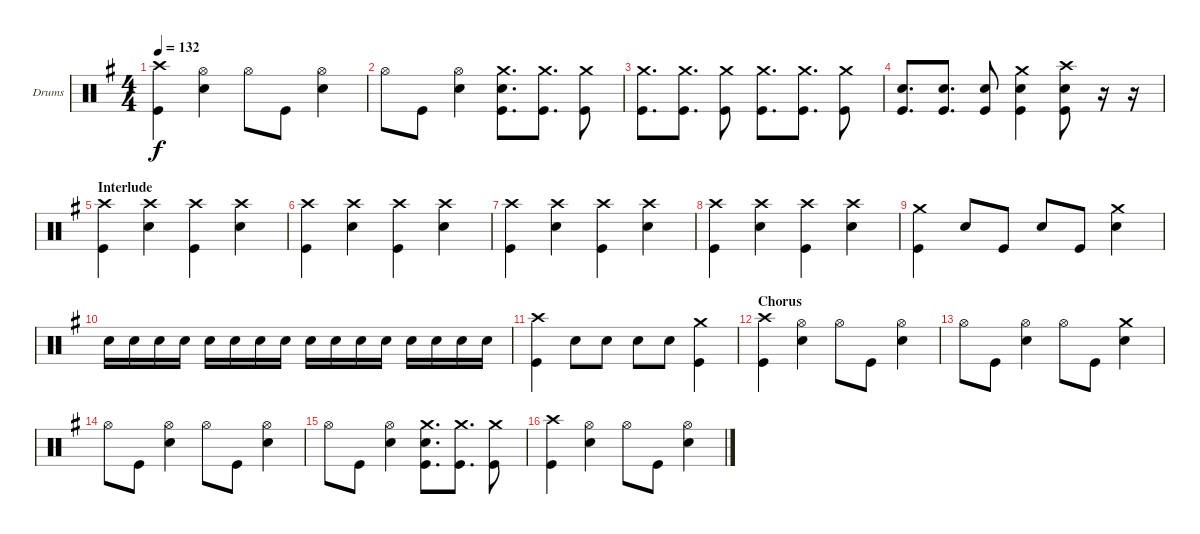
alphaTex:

\bracketExtendMode groupsimilarinstruments
\firstSystemTrackNameOrientation horizontal
\otherSystemsTrackNameOrientation horizontal
\track ("Drumkit" "Drums") {instrument percussion}
\staff {score}
\articulation defaults
\ts (4 4)
\tempo 132
\clef neutral
\ks g
("Crash high (hit)" "Kick (hit)").4{dy f} ("Hi-Hat (open)" "Snare (hit) 2").4 "Hi-Hat (open)".8 "Kick (hit)".8 ("Hi-Hat (open)" "Snare (hit) 2").4 |
"Hi-Hat (open)".8 "Kick (hit)".8 ("Hi-Hat (open)" "Snare (hit) 2").4 ("Crash medium (hit)" "Snare (hit) 2" "Kick (hit)").8{d} ("Crash medium (hit)" "Kick (hit)").8{d} ("Crash medium (hit)" "Kick (hit)").8 |
("Crash medium (hit)" "Kick (hit)").8{d} ("Crash medium (hit)" "Kick (hit)").8{d} ("Crash medium (hit)" "Kick (hit)").8 ("Crash medium (hit)" "Kick (hit)").8{d} ("Crash medium (hit)" "Kick (hit)").8{d} ("Crash medium (hit)" "Kick (hit)").8 |
("Snare (hit) 2" "Kick (hit)").8{d} ("Snare (hit) 2" "Kick (hit)").8{d} ("Snare (hit) 2" "Kick (hit)").8 ("Crash medium (hit)" "Snare (hit) 2" "Kick (hit)").4 ("Crash high (hit)" "Snare (hit) 2" "Kick (hit)").8 r.16 r.16 |
\section ("" "Interlude")
("Crash high (hit)" "Kick (hit)").4 ("Crash high (hit)" "Snare (hit) 2").4 ("Crash high (hit)" "Kick (hit)").4 ("Crash high (hit)" "Snare (hit) 2").4 |
("Crash high (hit)" "Kick (hit)").4 ("Crash high (hit)" "Snare (hit) 2").4 ("Crash high (hit)" "Kick (hit)").4 ("Crash high (hit)" "Snare (hit) 2").4 |
("Crash high (hit)" "Kick (hit)").4 ("Crash high (hit)" "Snare (hit) 2").4 ("Crash high (hit)" "Kick (hit)").4 ("Crash high (hit)" "Snare (hit) 2").4 |
("Crash high (hit)" "Kick (hit)").4 ("Crash high (hit)" "Snare (hit) 2").4 ("Crash high (hit)" "Kick (hit)").4 ("Crash high (hit)" "Snare (hit) 2").4 |
("Crash medium (hit)" "Kick (hit)").4 "Snare (hit) 2".8 "Kick (hit)".8 "Snare (hit) 2".8 "Kick (hit)".8 ("Crash medium (hit)" "Snare (hit) 2").4 |
"Snare (hit) 2".16 "Snare (hit) 2".16 "Snare (hit) 2".16 "Snare (hit) 2".16 "Snare (hit) 2".16 "Snare (hit) 2".16 "Snare (hit) 2".16 "Snare (hit) 2".16 "Snare (hit) 2".16 "Snare (hit) 2".16 "Snare (hit) 2".16 "Snare (hit) 2".16 "Snare (hit) 2".16 "Snare (hit) 2".16 "Snare (hit) 2".16 "Snare (hit) 2".16 |
("Crash high (hit)" "Kick (hit)").4 "Snare (hit) 2".8 "Snare (hit) 2".8 "Snare (hit) 2".8 "Snare (hit) 2".8 ("Crash medium (hit)" "Kick (hit)").4 |
\section ("" "Chorus")
("Crash high (hit)" "Kick (hit)").4 ("Hi-Hat (open)" "Snare (hit) 2").4 "Hi-Hat (open)".8 "Kick (hit)".8 ("Hi-Hat (open)" "Snare (hit) 2").4 |
"Hi-Hat (open)".8 "Kick (hit)".8 ("Hi-Hat (open)" "Snare (hit) 2").4 "Hi-Hat (open)".8 "Kick (hit)".8 ("Crash medium (hit)" "Snare (hit) 2").4 |
"Hi-Hat (open)".8 "Kick (hit)".8 ("Hi-Hat (open)" "Snare (hit) 2").4 "Hi-Hat (open)".8 "Kick (hit)".8 ("Hi-Hat (open)" "Snare (hit) 2").4 |
"Hi-Hat (open)".8 "Kick (hit)".8 ("Hi-Hat (open)" "Snare (hit) 2").4 ("Crash medium (hit)" "Snare (hit) 2" "Kick (hit)").8{d} ("Crash medium (hit)" "Kick (hit)").8{d} ("Crash medium (hit)" "Kick (hit)").8 |
("Crash high (hit)" "Kick (hit)").4 ("Hi-Hat (open)" "Snare (hit) 2").4 "Hi-Hat (open)".8 "Kick (hit)".8 ("Hi-Hat (open)" "Snare (hit) 2").4
